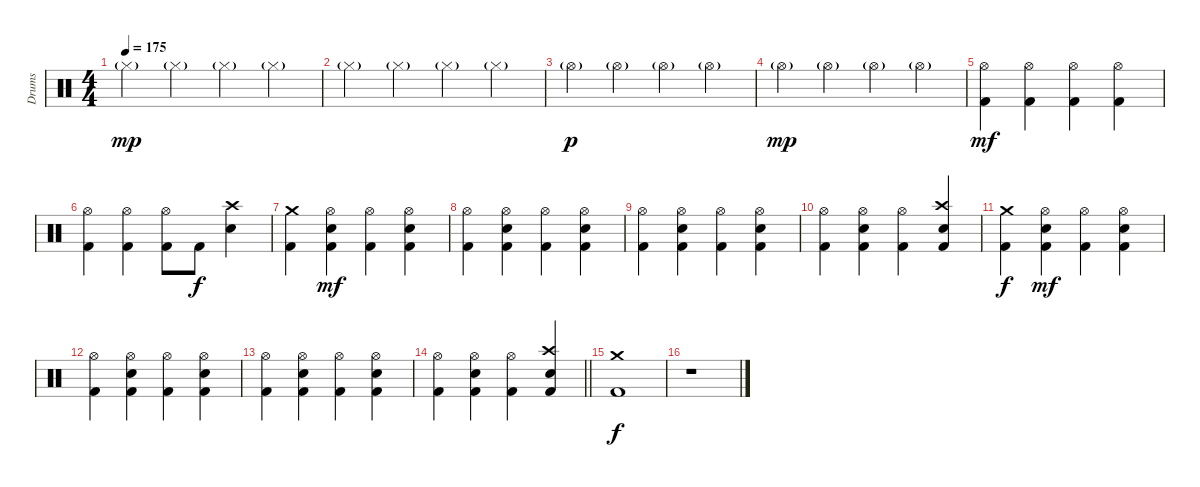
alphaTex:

\track ("Drums" "Drums") {instrument percussion}
\staff {score}
\articulation defaults
\ts (4 4)
\tempo 175
\clef neutral
\ks c "Hi-Hat (closed)"{g}.4{dy mp} "Hi-Hat (closed)"{g}.4 "Hi-Hat (closed)"{g}.4 "Hi-Hat (closed)"{g}.4
|
"Hi-Hat (closed)"{g}.4 "Hi-Hat (closed)"{g}.4 "Hi-Hat (closed)"{g}.4 "Hi-Hat (closed)"{g}.4 |
"Hi-Hat (open)"{g}.4{dy p} "Hi-Hat (open)"{g}.4 "Hi-Hat (open)"{g}.4 "Hi-Hat (open)"{g}.4 |
"Hi-Hat (open)"{g}.4{dy mp} "Hi-Hat (open)"{g}.4 "Hi-Hat (open)"{g}.4 "Hi-Hat (open)"{g}.4 |
("Hi-Hat (open)" "Kick (hit) 2").4{dy mf} ("Hi-Hat (open)" "Kick (hit) 2").4 ("Hi-Hat (open)" "Kick (hit) 2").4 ("Hi-Hat (open)" "Kick (hit) 2").4 |
("Hi-Hat (open)" "Kick (hit) 2").4 ("Hi-Hat (open)" "Kick (hit) 2").4 ("Hi-Hat (open)" "Kick (hit) 2").8 "Kick (hit) 2".8{dy f} ("Crash high (hit)" "Electric Snare (hit)").4 |
("Crash medium (hit)" "Kick (hit) 2").4 ("Hi-Hat (open)" "Electric Snare (hit)" "Kick (hit) 2").4{dy mf} ("Hi-Hat (open)" "Kick (hit) 2").4 ("Hi-Hat (open)" "Electric Snare (hit)" "Kick (hit) 2").4 |
("Hi-Hat (open)" "Kick (hit) 2").4 ("Hi-Hat (open)" "Electric Snare (hit)" "Kick (hit) 2").4 ("Hi-Hat (open)" "Kick (hit) 2").4 ("Hi-Hat (open)" "Electric Snare (hit)" "Kick (hit) 2").4 |
("Hi-Hat (open)" "Kick (hit) 2").4 ("Hi-Hat (open)" "Electric Snare (hit)" "Kick (hit) 2").4 ("Hi-Hat (open)" "Kick (hit) 2").4 ("Hi-Hat (open)" "Electric Snare (hit)" "Kick (hit) 2").4 |
("Hi-Hat (open)" "Kick (hit) 2").4 ("Hi-Hat (open)" "Electric Snare (hit)" "Kick (hit) 2").4 ("Hi-Hat (open)" "Kick (hit) 2").4 ("Crash high (hit)" "Electric Snare (hit)" "Kick (hit) 2").4 |
("Crash medium (hit)" "Kick (hit) 2").4{dy f} ("Hi-Hat (open)" "Electric Snare (hit)" "Kick (hit) 2").4{dy mf} ("Hi-Hat (open)" "Kick (hit) 2").4 ("Hi-Hat (open)" "Electric Snare (hit)" "Kick (hit) 2").4 |
("Hi-Hat (open)" "Kick (hit) 2").4 ("Hi-Hat (open)" "Electric Snare (hit)" "Kick (hit) 2").4 ("Hi-Hat (open)" "Kick (hit) 2").4 ("Hi-Hat (open)" "Electric Snare (hit)" "Kick (hit) 2").4 |
("Hi-Hat (open)" "Kick (hit) 2").4 ("Hi-Hat (open)" "Electric Snare (hit)" "Kick (hit) 2").4 ("Hi-Hat (open)" "Kick (hit) 2").4 ("Hi-Hat (open)" "Electric Snare (hit)" "Kick (hit) 2").4 |
\barLineRight lightlight
("Hi-Hat (open)" "Kick (hit) 2").4 ("Hi-Hat (open)" "Electric Snare (hit)" "Kick (hit) 2").4 ("Hi-Hat (open)" "Kick (hit) 2").4 ("Crash high (hit)" "Electric Snare (hit)" "Kick (hit) 2").4 |
("Crash medium (hit)" "Kick (hit) 2").1{dy f} |
r.1
